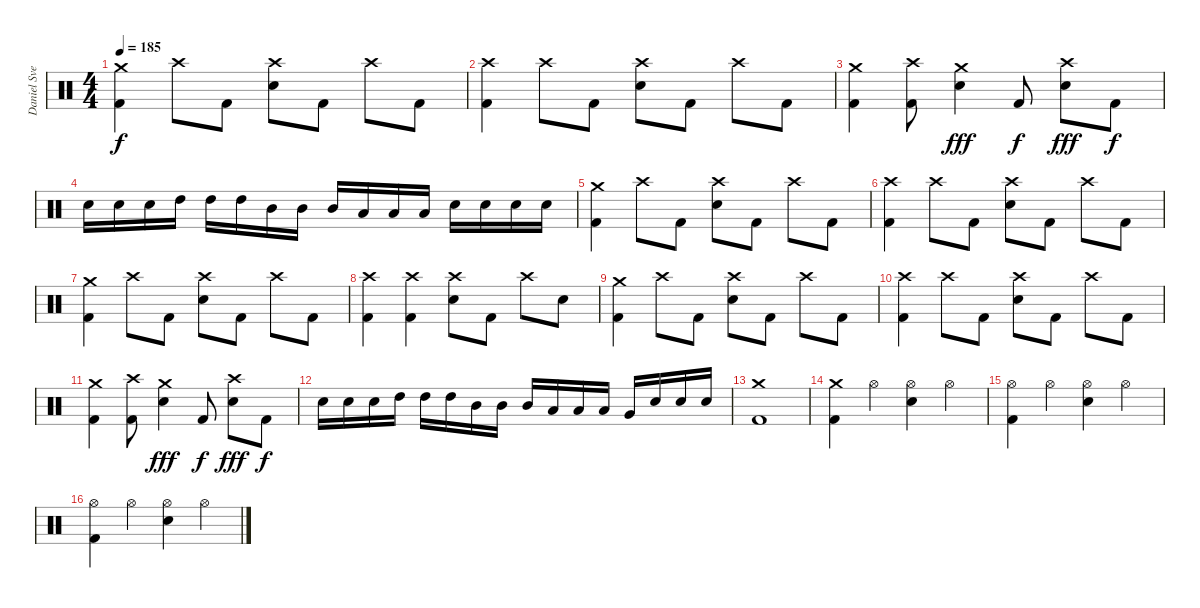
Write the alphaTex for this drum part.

\track ("Daniel Svensson" "Daniel Sve") {instrument percussion}
\staff {score}
\articulation defaults
\ts (4 4)
\tempo 185
\clef neutral
\ks c
("Kick (hit) 2" "Crash medium (hit)").4{dy f} "Crash high (hit)".8 "Kick (hit) 2".8 ("Electric Snare (hit)" "Crash high (hit)").8 "Kick (hit) 2".8 "Crash high (hit)".8 "Kick (hit) 2".8 |
("Kick (hit) 2" "Crash high (hit)").4 "Crash high (hit)".8 "Kick (hit) 2".8 ("Electric Snare (hit)" "Crash high (hit)").8 "Kick (hit) 2".8 "Crash high (hit)".8 "Kick (hit) 2".8 |
("Kick (hit) 2" "Crash medium (hit)").4 ("Kick (hit) 2" "Crash high (hit)").8 ("Electric Snare (hit)" "Crash medium (hit)").4{dy fff} "Kick (hit) 2".8{dy f} ("Electric Snare (hit)" "Crash high (hit)").8{dy fff} "Kick (hit) 2".8{dy f} |
"Electric Snare (hit)".16 "Electric Snare (hit)".16 "Electric Snare (hit)".16 "High Tom (hit)".16 "High Tom (hit)".16 "High Tom (hit)".16 "Mid Tom (hit)".16 "Mid Tom (hit)".16 "Mid Tom (hit)".16 "Low Tom (hit)".16 "Low Tom (hit)".16 "Low Tom (hit)".16 "Electric Snare (hit)".16 "Electric Snare (hit)".16 "Electric Snare (hit)".16 "Electric Snare (hit)".16 |
("Kick (hit) 2" "Crash medium (hit)").4 "Crash high (hit)".8 "Kick (hit) 2".8 ("Electric Snare (hit)" "Crash high (hit)").8 "Kick (hit) 2".8 "Crash high (hit)".8 "Kick (hit) 2".8 |
("Kick (hit) 2" "Crash high (hit)").4 "Crash high (hit)".8 "Kick (hit) 2".8 ("Electric Snare (hit)" "Crash high (hit)").8 "Kick (hit) 2".8 "Crash high (hit)".8 "Kick (hit) 2".8 |
("Kick (hit) 2" "Crash medium (hit)").4 "Crash high (hit)".8 "Kick (hit) 2".8 ("Electric Snare (hit)" "Crash high (hit)").8 "Kick (hit) 2".8 "Crash high (hit)".8 "Kick (hit) 2".8 |
("Kick (hit) 2" "Crash high (hit)").4 ("Kick (hit) 2" "Crash high (hit)").4 ("Electric Snare (hit)" "Crash high (hit)").8 "Kick (hit) 2".8 "Crash high (hit)".8 "Electric Snare (hit)".8 |
("Kick (hit) 2" "Crash medium (hit)").4 "Crash high (hit)".8 "Kick (hit) 2".8 ("Electric Snare (hit)" "Crash high (hit)").8 "Kick (hit) 2".8 "Crash high (hit)".8 "Kick (hit) 2".8 |
("Kick (hit) 2" "Crash high (hit)").4 "Crash high (hit)".8 "Kick (hit) 2".8 ("Electric Snare (hit)" "Crash high (hit)").8 "Kick (hit) 2".8 "Crash high (hit)".8 "Kick (hit) 2".8 |
("Kick (hit) 2" "Crash medium (hit)").4 ("Kick (hit) 2" "Crash high (hit)").8 ("Electric Snare (hit)" "Crash medium (hit)").4{dy fff} "Kick (hit) 2".8{dy f} ("Electric Snare (hit)" "Crash high (hit)").8{dy fff} "Kick (hit) 2".8{dy f} |
"Electric Snare (hit)".16 "Electric Snare (hit)".16 "Electric Snare (hit)".16 "High Tom (hit)".16 "High Tom (hit)".16 "High Tom (hit)".16 "Mid Tom (hit)".16 "Mid Tom (hit)".16 "Mid Tom (hit)".16 "Low Tom (hit)".16 "Low Tom (hit)".16 "Low Tom (hit)".16 "Very Low Tom (hit)".16 "Electric Snare (hit)".16 "Electric Snare (hit)".16 "Electric Snare (hit)".16 |
("Kick (hit) 2" "Crash medium (hit)").1 |
("Kick (hit) 2" "Crash medium (hit)").4 "Hi-Hat (open)".4 ("Electric Snare (hit)" "Hi-Hat (open)").4 "Hi-Hat (open)".4 |
("Kick (hit) 2" "Hi-Hat (open)").4 "Hi-Hat (open)".4 ("Electric Snare (hit)" "Hi-Hat (open)").4 "Hi-Hat (open)".4 |
("Kick (hit) 2" "Hi-Hat (open)").4 "Hi-Hat (open)".4 ("Electric Snare (hit)" "Hi-Hat (open)").4 "Hi-Hat (open)".4
